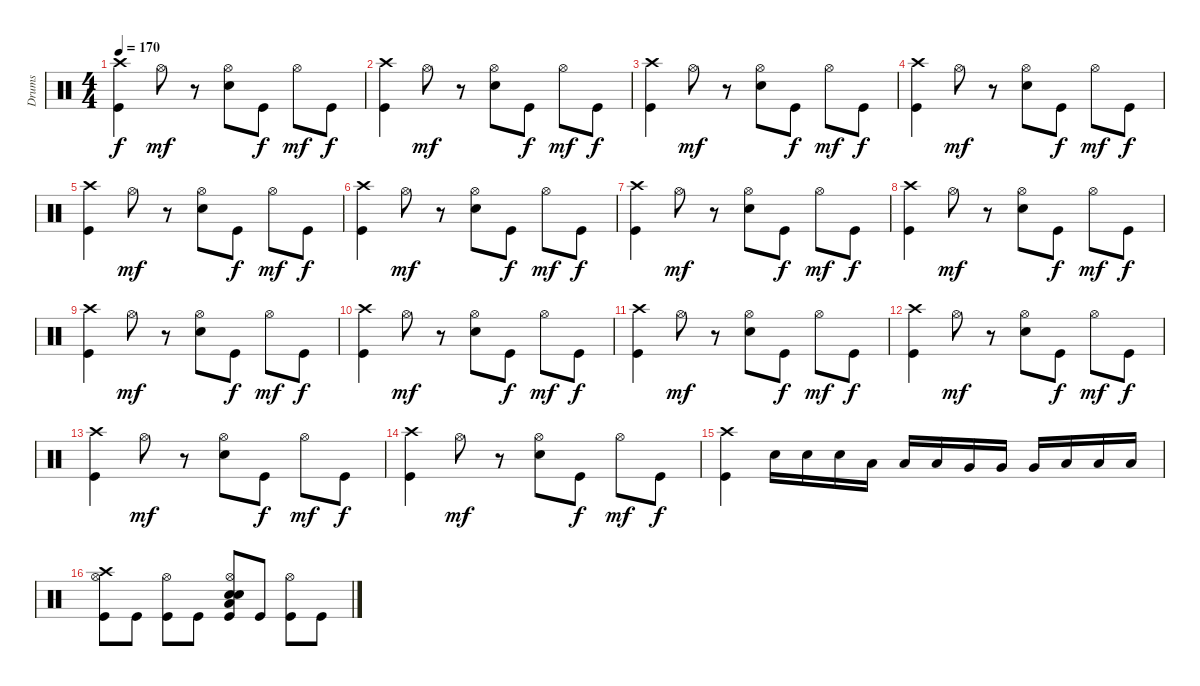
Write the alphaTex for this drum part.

\track ("Drums" "Drums") {instrument percussion}
\staff {score}
\articulation defaults
\ts (4 4)
\tempo 170
\clef neutral
\ks c
("Kick (hit)" "Crash high (hit)").4{dy f} "Hi-Hat (open)".8{dy mf} r.8 ("Electric Snare (hit)" "Hi-Hat (open)").8 "Kick (hit)".8{dy f} "Hi-Hat (open)".8{dy mf} "Kick (hit)".8{dy f} |
("Kick (hit)" "Crash high (hit)").4 "Hi-Hat (open)".8{dy mf} r.8 ("Electric Snare (hit)" "Hi-Hat (open)").8 "Kick (hit)".8{dy f} "Hi-Hat (open)".8{dy mf} "Kick (hit)".8{dy f} |
("Kick (hit)" "Crash high (hit)").4 "Hi-Hat (open)".8{dy mf} r.8 ("Electric Snare (hit)" "Hi-Hat (open)").8 "Kick (hit)".8{dy f} "Hi-Hat (open)".8{dy mf} "Kick (hit)".8{dy f} |
("Kick (hit)" "Crash high (hit)").4 "Hi-Hat (open)".8{dy mf} r.8 ("Electric Snare (hit)" "Hi-Hat (open)").8 "Kick (hit)".8{dy f} "Hi-Hat (open)".8{dy mf} "Kick (hit)".8{dy f} |
("Kick (hit)" "Crash high (hit)").4 "Hi-Hat (open)".8{dy mf} r.8 ("Electric Snare (hit)" "Hi-Hat (open)").8 "Kick (hit)".8{dy f} "Hi-Hat (open)".8{dy mf} "Kick (hit)".8{dy f} |
("Kick (hit)" "Crash high (hit)").4 "Hi-Hat (open)".8{dy mf} r.8 ("Electric Snare (hit)" "Hi-Hat (open)").8 "Kick (hit)".8{dy f} "Hi-Hat (open)".8{dy mf} "Kick (hit)".8{dy f} |
("Kick (hit)" "Crash high (hit)").4 "Hi-Hat (open)".8{dy mf} r.8 ("Electric Snare (hit)" "Hi-Hat (open)").8 "Kick (hit)".8{dy f} "Hi-Hat (open)".8{dy mf} "Kick (hit)".8{dy f} |
("Kick (hit)" "Crash high (hit)").4 "Hi-Hat (open)".8{dy mf} r.8 ("Electric Snare (hit)" "Hi-Hat (open)").8 "Kick (hit)".8{dy f} "Hi-Hat (open)".8{dy mf} "Kick (hit)".8{dy f} |
("Kick (hit)" "Crash high (hit)").4 "Hi-Hat (open)".8{dy mf} r.8 ("Electric Snare (hit)" "Hi-Hat (open)").8 "Kick (hit)".8{dy f} "Hi-Hat (open)".8{dy mf} "Kick (hit)".8{dy f} |
("Kick (hit)" "Crash high (hit)").4 "Hi-Hat (open)".8{dy mf} r.8 ("Electric Snare (hit)" "Hi-Hat (open)").8 "Kick (hit)".8{dy f} "Hi-Hat (open)".8{dy mf} "Kick (hit)".8{dy f} |
("Kick (hit)" "Crash high (hit)").4 "Hi-Hat (open)".8{dy mf} r.8 ("Electric Snare (hit)" "Hi-Hat (open)").8 "Kick (hit)".8{dy f} "Hi-Hat (open)".8{dy mf} "Kick (hit)".8{dy f} |
("Kick (hit)" "Crash high (hit)").4 "Hi-Hat (open)".8{dy mf} r.8 ("Electric Snare (hit)" "Hi-Hat (open)").8 "Kick (hit)".8{dy f} "Hi-Hat (open)".8{dy mf} "Kick (hit)".8{dy f} |
("Kick (hit)" "Crash high (hit)").4 "Hi-Hat (open)".8{dy mf} r.8 ("Electric Snare (hit)" "Hi-Hat (open)").8 "Kick (hit)".8{dy f} "Hi-Hat (open)".8{dy mf} "Kick (hit)".8{dy f} |
("Kick (hit)" "Crash high (hit)").4 "Hi-Hat (open)".8{dy mf} r.8 ("Electric Snare (hit)" "Hi-Hat (open)").8 "Kick (hit)".8{dy f} "Hi-Hat (open)".8{dy mf} "Kick (hit)".8{dy f} |
("Kick (hit)" "Crash high (hit)").4 "Electric Snare (hit)".16 "Electric Snare (hit)".16 "Electric Snare (hit)".16 "Low Tom (hit)".16 "Low Tom (hit)".16 "Low Tom (hit)".16 "Very Low Tom (hit)".16 "Very Low Tom (hit)".16 "Very Low Tom (hit)".16 "Low Floor Tom (hit)".16 "Low Floor Tom (hit)".16 "Low Floor Tom (hit)".16 |
("Crash high (hit)" "Hi-Hat (open)" "Kick (hit)").8 "Kick (hit)".8 ("Hi-Hat (open)" "Kick (hit)").8 "Kick (hit)".8 ("Low Floor Tom (hit)" "Hi-Hat (open)" "Electric Snare (hit)" "Electric Snare (hit)" "Kick (hit)").8 "Kick (hit)".8 ("Hi-Hat (open)" "Kick (hit)").8 "Kick (hit)".8
